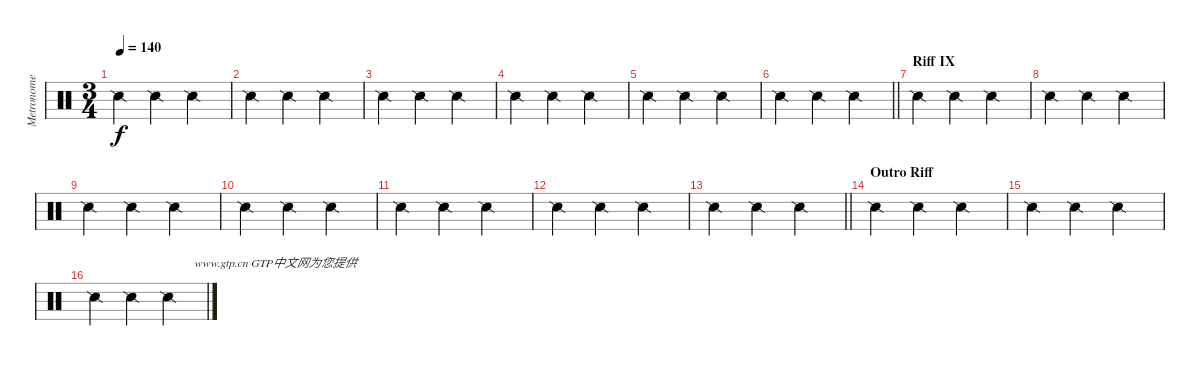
\track ("Metronome" "Metronome") {instrument percussion}
\staff {score}
\articulation defaults
\ts (3 4)
\tempo 140
\clef neutral
\ks c "Snare (side stick) 2".4{dy f} "Snare (side stick) 2".4 "Snare (side stick) 2".4
|
"Snare (side stick) 2".4 "Snare (side stick) 2".4 "Snare (side stick) 2".4 |
"Snare (side stick) 2".4 "Snare (side stick) 2".4 "Snare (side stick) 2".4 |
"Snare (side stick) 2".4 "Snare (side stick) 2".4 "Snare (side stick) 2".4 |
"Snare (side stick) 2".4 "Snare (side stick) 2".4 "Snare (side stick) 2".4 |
\barLineRight lightlight "Snare (side stick) 2".4 "Snare (side stick) 2".4 "Snare (side stick) 2".4
|
\section ("" "Riff IX")
"Snare (side stick) 2".4 "Snare (side stick) 2".4 "Snare (side stick) 2".4 |
"Snare (side stick) 2".4 "Snare (side stick) 2".4 "Snare (side stick) 2".4 |
"Snare (side stick) 2".4 "Snare (side stick) 2".4 "Snare (side stick) 2".4 |
"Snare (side stick) 2".4 "Snare (side stick) 2".4 "Snare (side stick) 2".4 |
"Snare (side stick) 2".4 "Snare (side stick) 2".4 "Snare (side stick) 2".4 |
"Snare (side stick) 2".4 "Snare (side stick) 2".4 "Snare (side stick) 2".4 |
\barLineRight lightlight "Snare (side stick) 2".4 "Snare (side stick) 2".4 "Snare (side stick) 2".4
|
\section ("" "Outro Riff")
"Snare (side stick) 2".4 "Snare (side stick) 2".4 "Snare (side stick) 2".4 |
"Snare (side stick) 2".4 "Snare (side stick) 2".4 "Snare (side stick) 2".4 |
"Snare (side stick) 2".4 "Snare (side stick) 2".4{txt "                    www.gtp.cn GTP中文网为您提供"} "Snare (side stick) 2".4
